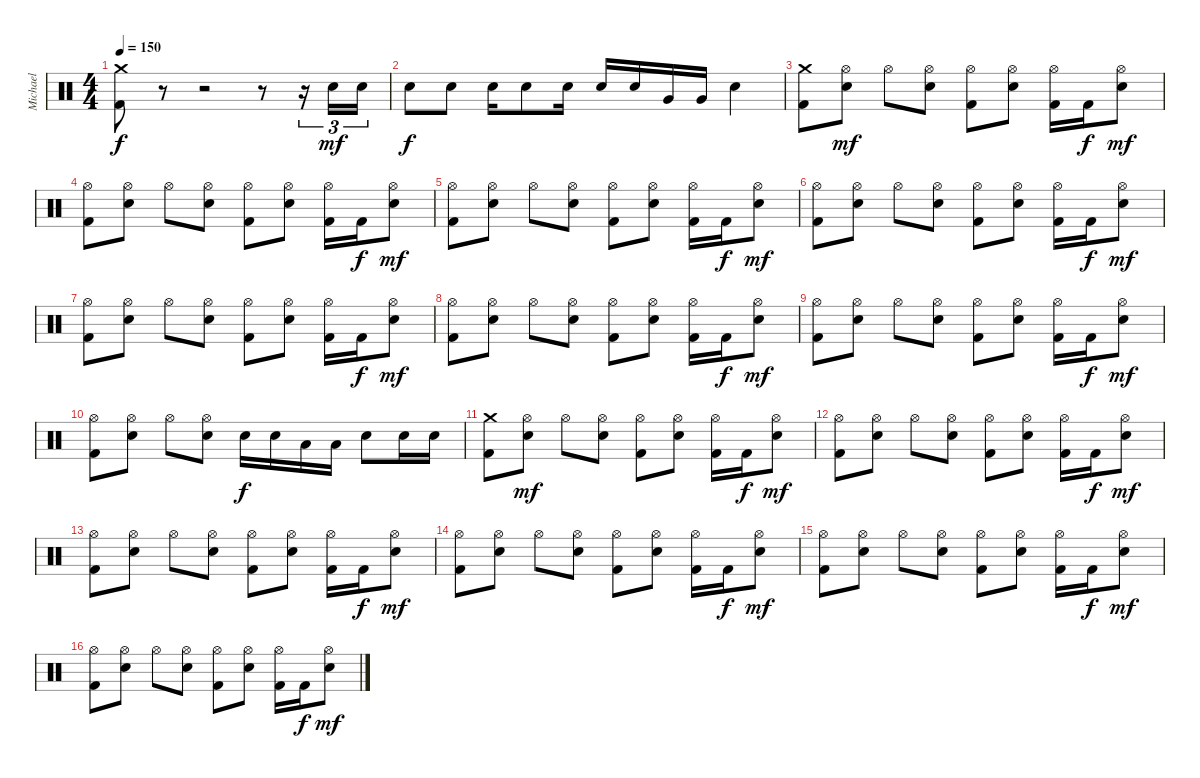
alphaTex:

\track ("Michael" "Michael") {instrument percussion}
\staff {score}
\articulation defaults
\ts (4 4)
\tempo 150
\clef neutral
\ks c
("Crash medium (hit)" "Kick (hit) 2").8{dy f} r.8 r.2 r.8 r.16{tu (3 2)} "Electric Snare (hit)".16{tu (3 2) dy mf} "Electric Snare (hit)".16{tu (3 2)} |
"Electric Snare (hit)".8{dy f} "Electric Snare (hit)".8 "Electric Snare (hit)".16 "Electric Snare (hit)".8 "Electric Snare (hit)".16 "Electric Snare (hit)".16 "Electric Snare (hit)".16 "Very Low Tom (hit)".16 "Very Low Tom (hit)".16 "Electric Snare (hit)".4 |
("Crash medium (hit)" "Kick (hit) 2").8 ("Hi-Hat (open)" "Electric Snare (hit)").8{dy mf} "Hi-Hat (open)".8 ("Hi-Hat (open)" "Electric Snare (hit)").8 ("Hi-Hat (open)" "Kick (hit) 2").8 ("Hi-Hat (open)" "Electric Snare (hit)").8 ("Hi-Hat (open)" "Kick (hit) 2").16 "Kick (hit) 2".16{dy f} ("Hi-Hat (open)" "Electric Snare (hit)").8{dy mf} |
("Hi-Hat (open)" "Kick (hit) 2").8 ("Hi-Hat (open)" "Electric Snare (hit)").8 "Hi-Hat (open)".8 ("Hi-Hat (open)" "Electric Snare (hit)").8 ("Hi-Hat (open)" "Kick (hit) 2").8 ("Hi-Hat (open)" "Electric Snare (hit)").8 ("Hi-Hat (open)" "Kick (hit) 2").16 "Kick (hit) 2".16{dy f} ("Hi-Hat (open)" "Electric Snare (hit)").8{dy mf} |
("Hi-Hat (open)" "Kick (hit) 2").8 ("Hi-Hat (open)" "Electric Snare (hit)").8 "Hi-Hat (open)".8 ("Hi-Hat (open)" "Electric Snare (hit)").8 ("Hi-Hat (open)" "Kick (hit) 2").8 ("Hi-Hat (open)" "Electric Snare (hit)").8 ("Hi-Hat (open)" "Kick (hit) 2").16 "Kick (hit) 2".16{dy f} ("Hi-Hat (open)" "Electric Snare (hit)").8{dy mf} |
("Hi-Hat (open)" "Kick (hit) 2").8 ("Hi-Hat (open)" "Electric Snare (hit)").8 "Hi-Hat (open)".8 ("Hi-Hat (open)" "Electric Snare (hit)").8 ("Hi-Hat (open)" "Kick (hit) 2").8 ("Hi-Hat (open)" "Electric Snare (hit)").8 ("Hi-Hat (open)" "Kick (hit) 2").16 "Kick (hit) 2".16{dy f} ("Hi-Hat (open)" "Electric Snare (hit)").8{dy mf} |
("Hi-Hat (open)" "Kick (hit) 2").8 ("Hi-Hat (open)" "Electric Snare (hit)").8 "Hi-Hat (open)".8 ("Hi-Hat (open)" "Electric Snare (hit)").8 ("Hi-Hat (open)" "Kick (hit) 2").8 ("Hi-Hat (open)" "Electric Snare (hit)").8 ("Hi-Hat (open)" "Kick (hit) 2").16 "Kick (hit) 2".16{dy f} ("Hi-Hat (open)" "Electric Snare (hit)").8{dy mf} |
("Hi-Hat (open)" "Kick (hit) 2").8 ("Hi-Hat (open)" "Electric Snare (hit)").8 "Hi-Hat (open)".8 ("Hi-Hat (open)" "Electric Snare (hit)").8 ("Hi-Hat (open)" "Kick (hit) 2").8 ("Hi-Hat (open)" "Electric Snare (hit)").8 ("Hi-Hat (open)" "Kick (hit) 2").16 "Kick (hit) 2".16{dy f} ("Hi-Hat (open)" "Electric Snare (hit)").8{dy mf} |
("Hi-Hat (open)" "Kick (hit) 2").8 ("Hi-Hat (open)" "Electric Snare (hit)").8 "Hi-Hat (open)".8 ("Hi-Hat (open)" "Electric Snare (hit)").8 ("Hi-Hat (open)" "Kick (hit) 2").8 ("Hi-Hat (open)" "Electric Snare (hit)").8 ("Hi-Hat (open)" "Kick (hit) 2").16 "Kick (hit) 2".16{dy f} ("Hi-Hat (open)" "Electric Snare (hit)").8{dy mf} |
("Hi-Hat (open)" "Kick (hit) 2").8 ("Hi-Hat (open)" "Electric Snare (hit)").8 "Hi-Hat (open)".8 ("Hi-Hat (open)" "Electric Snare (hit)").8 "Electric Snare (hit)".16{dy f} "Electric Snare (hit)".16 "Low Tom (hit)".16 "Low Tom (hit)".16 "Electric Snare (hit)".8 "Electric Snare (hit)".16 "Electric Snare (hit)".16 |
("Crash medium (hit)" "Kick (hit) 2").8 ("Hi-Hat (open)" "Electric Snare (hit)").8{dy mf} "Hi-Hat (open)".8 ("Hi-Hat (open)" "Electric Snare (hit)").8 ("Hi-Hat (open)" "Kick (hit) 2").8 ("Hi-Hat (open)" "Electric Snare (hit)").8 ("Hi-Hat (open)" "Kick (hit) 2").16 "Kick (hit) 2".16{dy f} ("Hi-Hat (open)" "Electric Snare (hit)").8{dy mf} |
("Hi-Hat (open)" "Kick (hit) 2").8 ("Hi-Hat (open)" "Electric Snare (hit)").8 "Hi-Hat (open)".8 ("Hi-Hat (open)" "Electric Snare (hit)").8 ("Hi-Hat (open)" "Kick (hit) 2").8 ("Hi-Hat (open)" "Electric Snare (hit)").8 ("Hi-Hat (open)" "Kick (hit) 2").16 "Kick (hit) 2".16{dy f} ("Hi-Hat (open)" "Electric Snare (hit)").8{dy mf} |
("Hi-Hat (open)" "Kick (hit) 2").8 ("Hi-Hat (open)" "Electric Snare (hit)").8 "Hi-Hat (open)".8 ("Hi-Hat (open)" "Electric Snare (hit)").8 ("Hi-Hat (open)" "Kick (hit) 2").8 ("Hi-Hat (open)" "Electric Snare (hit)").8 ("Hi-Hat (open)" "Kick (hit) 2").16 "Kick (hit) 2".16{dy f} ("Hi-Hat (open)" "Electric Snare (hit)").8{dy mf} |
("Hi-Hat (open)" "Kick (hit) 2").8 ("Hi-Hat (open)" "Electric Snare (hit)").8 "Hi-Hat (open)".8 ("Hi-Hat (open)" "Electric Snare (hit)").8 ("Hi-Hat (open)" "Kick (hit) 2").8 ("Hi-Hat (open)" "Electric Snare (hit)").8 ("Hi-Hat (open)" "Kick (hit) 2").16 "Kick (hit) 2".16{dy f} ("Hi-Hat (open)" "Electric Snare (hit)").8{dy mf} |
("Hi-Hat (open)" "Kick (hit) 2").8 ("Hi-Hat (open)" "Electric Snare (hit)").8 "Hi-Hat (open)".8 ("Hi-Hat (open)" "Electric Snare (hit)").8 ("Hi-Hat (open)" "Kick (hit) 2").8 ("Hi-Hat (open)" "Electric Snare (hit)").8 ("Hi-Hat (open)" "Kick (hit) 2").16 "Kick (hit) 2".16{dy f} ("Hi-Hat (open)" "Electric Snare (hit)").8{dy mf} |
("Hi-Hat (open)" "Kick (hit) 2").8 ("Hi-Hat (open)" "Electric Snare (hit)").8 "Hi-Hat (open)".8 ("Hi-Hat (open)" "Electric Snare (hit)").8 ("Hi-Hat (open)" "Kick (hit) 2").8 ("Hi-Hat (open)" "Electric Snare (hit)").8 ("Hi-Hat (open)" "Kick (hit) 2").16 "Kick (hit) 2".16{dy f} ("Hi-Hat (open)" "Electric Snare (hit)").8{dy mf}
